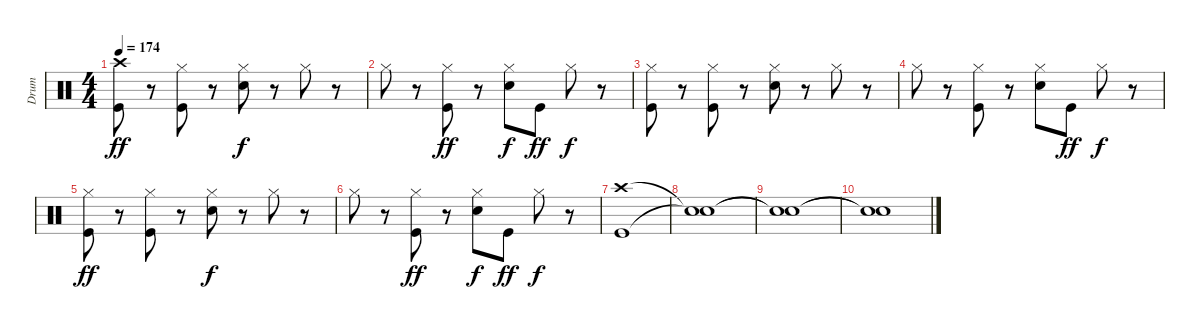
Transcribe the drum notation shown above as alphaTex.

\track ("Drum" "Drum") {instrument percussion}
\staff {score}
\articulation defaults
\ts (4 4)
\tempo 174
\clef neutral
\ks c
("Crash high (hit)" "Kick (hit)").8{dy ff} r.8 ("Hi-Hat (closed)" "Kick (hit)").8 r.8 ("Hi-Hat (closed)" "Snare (hit) 2").8{dy f} r.8 "Hi-Hat (closed)".8 r.8 |
"Hi-Hat (closed)".8 r.8 ("Hi-Hat (closed)" "Kick (hit)").8{dy ff} r.8 ("Hi-Hat (closed)" "Snare (hit) 2").8{dy f} "Kick (hit)".8{dy ff} "Hi-Hat (closed)".8{dy f} r.8 |
("Hi-Hat (closed)" "Kick (hit)").8 r.8 ("Hi-Hat (closed)" "Kick (hit)").8 r.8 ("Hi-Hat (closed)" "Snare (hit) 2").8 r.8 "Hi-Hat (closed)".8 r.8 |
"Hi-Hat (closed)".8 r.8 ("Hi-Hat (closed)" "Kick (hit)").8 r.8 ("Hi-Hat (closed)" "Snare (hit) 2").8 "Kick (hit)".8{dy ff} "Hi-Hat (closed)".8{dy f} r.8 |
("Hi-Hat (closed)" "Kick (hit)").8{dy ff} r.8 ("Hi-Hat (closed)" "Kick (hit)").8 r.8 ("Hi-Hat (closed)" "Snare (hit) 2").8{dy f} r.8 "Hi-Hat (closed)".8 r.8 |
"Hi-Hat (closed)".8 r.8 ("Hi-Hat (closed)" "Kick (hit)").8{dy ff} r.8 ("Hi-Hat (closed)" "Snare (hit) 2").8{dy f} "Kick (hit)".8{dy ff} "Hi-Hat (closed)".8{dy f} r.8 |
("Crash high (hit)" "Kick (hit)").1 |
("Snare (hit)"{t} "Snare (hit)"{t}).1 |
("Snare (hit)"{t} "Snare (hit)"{t}).1 |
("Snare (hit)"{t} "Snare (hit)"{t}).1
